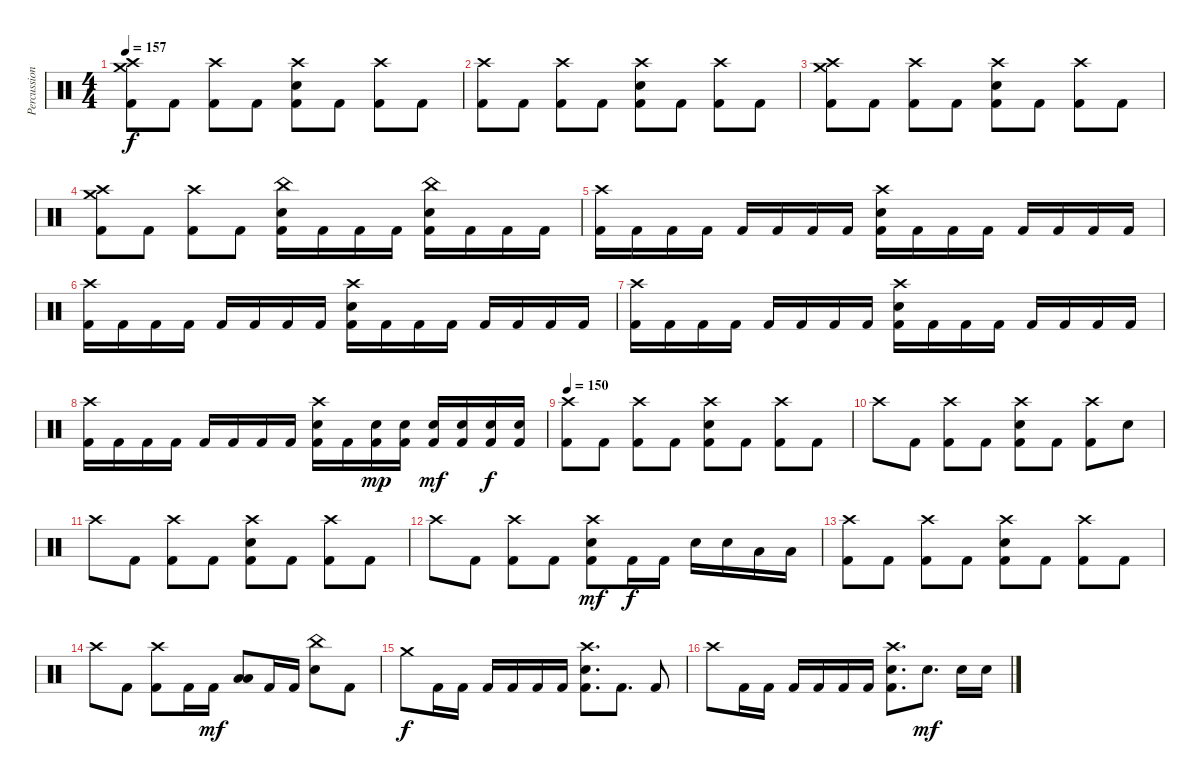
\track ("Percussion" "Percussion") {instrument percussion}
\staff {score}
\articulation defaults
\ts (4 4)
\tempo 157
\clef neutral
\ks c
("Crash high (hit)" "Crash medium (hit)" "Kick (hit) 2").8{dy f} "Kick (hit) 2".8 ("Crash high (hit)" "Kick (hit) 2").8 "Kick (hit) 2".8 ("Crash high (hit)" "Electric Snare (hit)" "Kick (hit) 2").8 "Kick (hit) 2".8 ("Crash high (hit)" "Kick (hit) 2").8 "Kick (hit) 2".8 |
("Crash high (hit)" "Kick (hit) 2").8 "Kick (hit) 2".8 ("Crash high (hit)" "Kick (hit) 2").8 "Kick (hit) 2".8 ("Crash high (hit)" "Electric Snare (hit)" "Kick (hit) 2").8 "Kick (hit) 2".8 ("Crash high (hit)" "Kick (hit) 2").8 "Kick (hit) 2".8 |
("Crash high (hit)" "Crash medium (hit)" "Kick (hit) 2").8 "Kick (hit) 2".8 ("Crash high (hit)" "Kick (hit) 2").8 "Kick (hit) 2".8 ("Crash high (hit)" "Electric Snare (hit)" "Kick (hit) 2").8 "Kick (hit) 2".8 ("Crash high (hit)" "Kick (hit) 2").8 "Kick (hit) 2".8 |
("Crash high (hit)" "Crash medium (hit)" "Kick (hit) 2").8 "Kick (hit) 2".8 ("Crash high (hit)" "Kick (hit) 2").8 "Kick (hit) 2".8 ("China (hit)" "Electric Snare (hit)" "Kick (hit) 2").16 "Kick (hit) 2".16 "Kick (hit) 2".16 "Kick (hit) 2".16 ("China (hit)" "Electric Snare (hit)" "Kick (hit) 2").16 "Kick (hit) 2".16 "Kick (hit) 2".16 "Kick (hit) 2".16 |
("Crash high (hit)" "Kick (hit) 2").16 "Kick (hit) 2".16 "Kick (hit) 2".16 "Kick (hit) 2".16 "Kick (hit) 2".16 "Kick (hit) 2".16 "Kick (hit) 2".16 "Kick (hit) 2".16 ("Crash high (hit)" "Electric Snare (hit)" "Kick (hit) 2").16 "Kick (hit) 2".16 "Kick (hit) 2".16 "Kick (hit) 2".16 "Kick (hit) 2".16 "Kick (hit) 2".16 "Kick (hit) 2".16 "Kick (hit) 2".16 |
("Crash high (hit)" "Kick (hit) 2").16 "Kick (hit) 2".16 "Kick (hit) 2".16 "Kick (hit) 2".16 "Kick (hit) 2".16 "Kick (hit) 2".16 "Kick (hit) 2".16 "Kick (hit) 2".16 ("Crash high (hit)" "Electric Snare (hit)" "Kick (hit) 2").16 "Kick (hit) 2".16 "Kick (hit) 2".16 "Kick (hit) 2".16 "Kick (hit) 2".16 "Kick (hit) 2".16 "Kick (hit) 2".16 "Kick (hit) 2".16 |
("Crash high (hit)" "Kick (hit) 2").16 "Kick (hit) 2".16 "Kick (hit) 2".16 "Kick (hit) 2".16 "Kick (hit) 2".16 "Kick (hit) 2".16 "Kick (hit) 2".16 "Kick (hit) 2".16 ("Crash high (hit)" "Electric Snare (hit)" "Kick (hit) 2").16 "Kick (hit) 2".16 "Kick (hit) 2".16 "Kick (hit) 2".16 "Kick (hit) 2".16 "Kick (hit) 2".16 "Kick (hit) 2".16 "Kick (hit) 2".16 |
("Crash high (hit)" "Kick (hit) 2").16 "Kick (hit) 2".16 "Kick (hit) 2".16 "Kick (hit) 2".16 "Kick (hit) 2".16 "Kick (hit) 2".16 "Kick (hit) 2".16 "Kick (hit) 2".16 ("Crash high (hit)" "Electric Snare (hit)" "Kick (hit) 2").16 "Kick (hit) 2".16 ("Electric Snare (hit)" "Kick (hit) 2").16{dy mp} ("Electric Snare (hit)" "Kick (hit) 2").16 ("Electric Snare (hit)" "Kick (hit) 2").16{dy mf} ("Electric Snare (hit)" "Kick (hit) 2").16 ("Electric Snare (hit)" "Kick (hit) 2").16{dy f} ("Electric Snare (hit)" "Kick (hit) 2").16 |
\tempo 150
("Crash high (hit)" "Kick (hit) 2").8 "Kick (hit) 2".8 ("Crash high (hit)" "Kick (hit) 2").8 "Kick (hit) 2".8 ("Crash high (hit)" "Electric Snare (hit)" "Kick (hit) 2").8 "Kick (hit) 2".8 ("Crash high (hit)" "Kick (hit) 2").8 "Kick (hit) 2".8 |
"Crash high (hit)".8 "Kick (hit) 2".8 ("Crash high (hit)" "Kick (hit) 2").8 "Kick (hit) 2".8 ("Crash high (hit)" "Electric Snare (hit)" "Kick (hit) 2").8 "Kick (hit) 2".8 ("Crash high (hit)" "Kick (hit) 2").8 "Electric Snare (hit)".8 |
"Crash high (hit)".8 "Kick (hit) 2".8 ("Crash high (hit)" "Kick (hit) 2").8 "Kick (hit) 2".8 ("Crash high (hit)" "Electric Snare (hit)" "Kick (hit) 2").8 "Kick (hit) 2".8 ("Crash high (hit)" "Kick (hit) 2").8 "Kick (hit) 2".8 |
"Crash high (hit)".8 "Kick (hit) 2".8 ("Crash high (hit)" "Kick (hit) 2").8 "Kick (hit) 2".8 ("Crash high (hit)" "Electric Snare (hit)" "Kick (hit) 2").8{dy mf} "Kick (hit) 2".16{dy f} "Kick (hit) 2".16 "Electric Snare (hit)".16 "Electric Snare (hit)".16 "Low Tom (hit)".16 "Low Tom (hit)".16 |
("Crash high (hit)" "Kick (hit) 2").8 "Kick (hit) 2".8 ("Crash high (hit)" "Kick (hit) 2").8 "Kick (hit) 2".8 ("Crash high (hit)" "Electric Snare (hit)" "Kick (hit) 2").8 "Kick (hit) 2".8 ("Crash high (hit)" "Kick (hit) 2").8 "Kick (hit) 2".8 |
"Crash high (hit)".8 "Kick (hit) 2".8 ("Crash high (hit)" "Kick (hit) 2").8 "Kick (hit) 2".16 "Kick (hit) 2".16{dy mf} ("Low Tom (hit)" "Low Floor Tom (hit)").8 "Kick (hit) 2".16 "Kick (hit) 2".16 ("China (hit)" "Electric Snare (hit)").8 "Kick (hit) 2".8 |
"Crash medium (hit)".8{dy f} "Kick (hit) 2".16 "Kick (hit) 2".16 "Kick (hit) 2".16 "Kick (hit) 2".16 "Kick (hit) 2".16 "Kick (hit) 2".16 ("Crash high (hit)" "Electric Snare (hit)" "Kick (hit) 2").8{d} "Kick (hit) 2".8{d} "Kick (hit) 2".8 |
"Crash high (hit)".8 "Kick (hit) 2".16 "Kick (hit) 2".16 "Kick (hit) 2".16 "Kick (hit) 2".16 "Kick (hit) 2".16 "Kick (hit) 2".16 ("Crash high (hit)" "Electric Snare (hit)" "Kick (hit) 2").8{d} "Electric Snare (hit)".8{d dy mf} "Electric Snare (hit)".16 "Electric Snare (hit)".16
